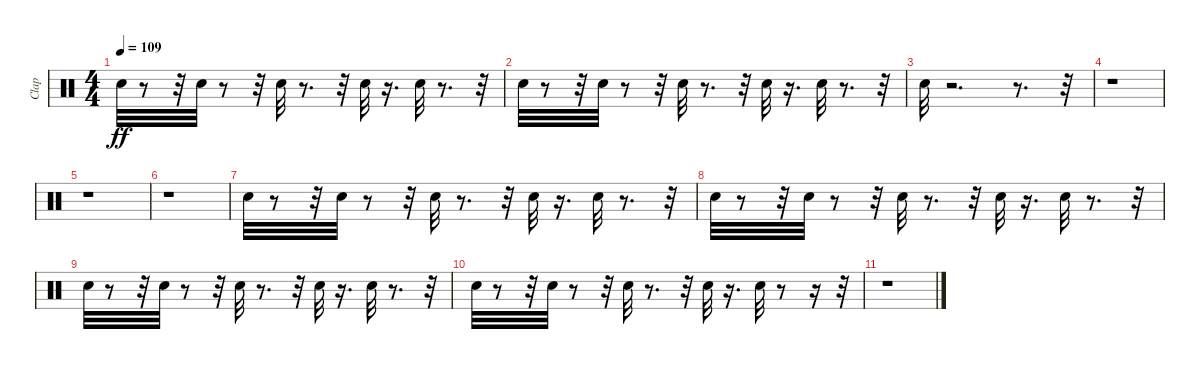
\track ("Clap" "Clap") {instrument percussion}
\staff {score}
\articulation defaults
\ts (4 4)
\tempo 109
\clef neutral
\ks c "Hand Clap (hit)".32{dy ff}
r.8 r.32 "Hand Clap (hit)".32 r.8 r.32 "Hand Clap (hit)".32 r.8{d} r.32 "Hand Clap (hit)".32 r.16{d} "Hand Clap (hit)".32 r.8{d} r.32 |
"Hand Clap (hit)".32 r.8 r.32 "Hand Clap (hit)".32 r.8 r.32 "Hand Clap (hit)".32 r.8{d} r.32 "Hand Clap (hit)".32 r.16{d} "Hand Clap (hit)".32 r.8{d} r.32 |
"Hand Clap (hit)".32 r.2{d} r.8{d} r.32 |
r.1 |
r.1 |
r.1 |
"Hand Clap (hit)".32 r.8 r.32 "Hand Clap (hit)".32 r.8 r.32 "Hand Clap (hit)".32 r.8{d} r.32 "Hand Clap (hit)".32 r.16{d} "Hand Clap (hit)".32 r.8{d} r.32 |
"Hand Clap (hit)".32 r.8 r.32 "Hand Clap (hit)".32 r.8 r.32 "Hand Clap (hit)".32 r.8{d} r.32 "Hand Clap (hit)".32 r.16{d} "Hand Clap (hit)".32 r.8{d} r.32 |
"Hand Clap (hit)".32 r.8 r.32 "Hand Clap (hit)".32 r.8 r.32 "Hand Clap (hit)".32 r.8{d} r.32 "Hand Clap (hit)".32 r.16{d} "Hand Clap (hit)".32 r.8{d} r.32 |
"Hand Clap (hit)".32 r.8 r.32 "Hand Clap (hit)".32 r.8 r.32 "Hand Clap (hit)".32 r.8{d} r.32 "Hand Clap (hit)".32 r.16{d} "Hand Clap (hit)".32 r.8 r.16 r.32 |
r.1
